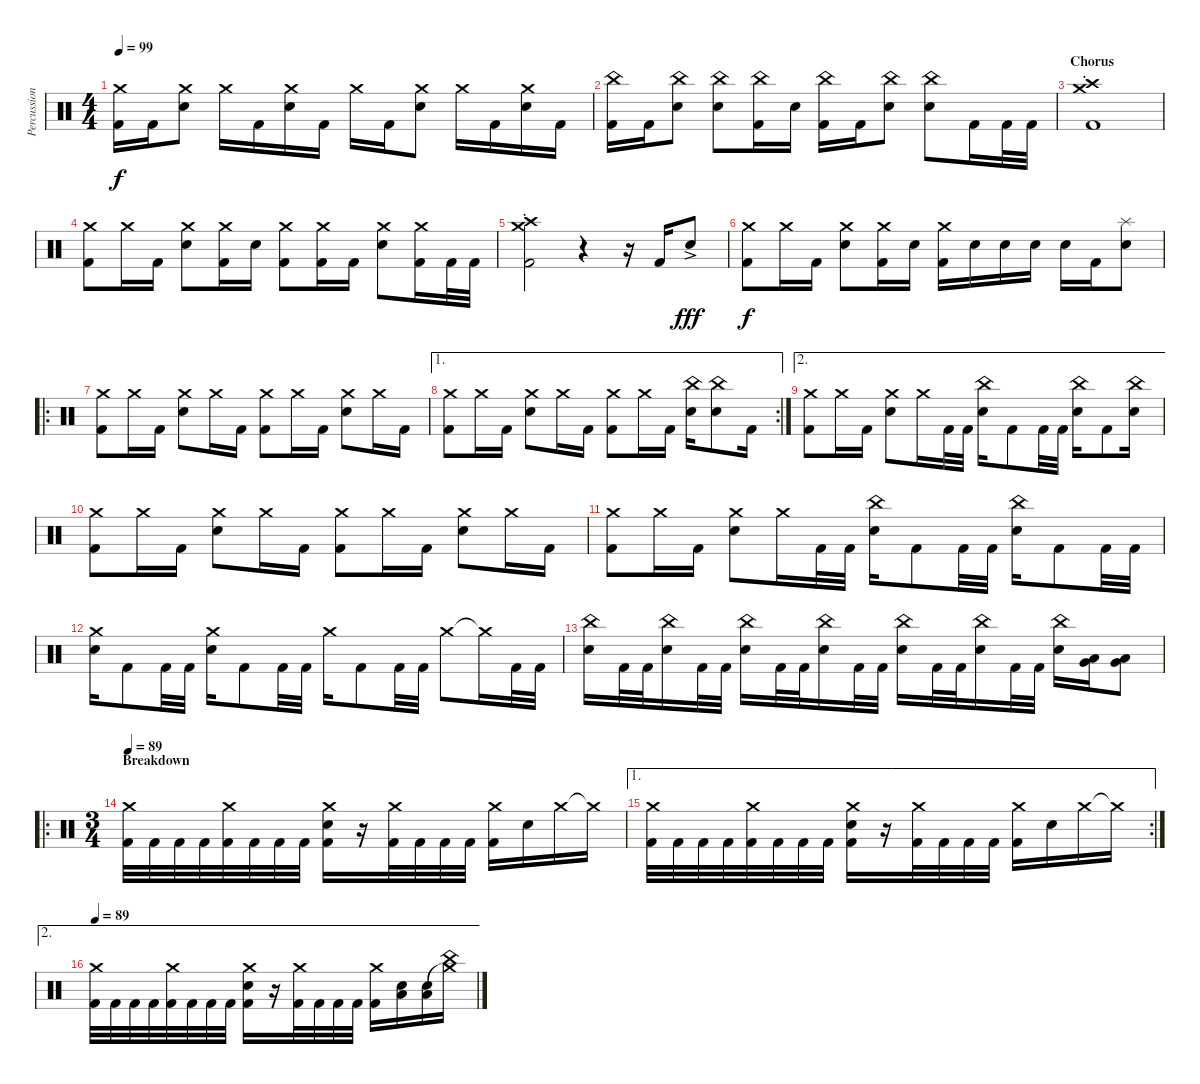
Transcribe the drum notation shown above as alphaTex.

\track ("Percussion" "Percussion") {instrument percussion}
\staff {score}
\articulation defaults
\ts (4 4)
\tempo 99
\clef neutral
\ks c
("Crash medium (hit)" "Kick (hit) 2").16{dy f} "Kick (hit) 2".16 ("Crash medium (hit)" "Electric Snare (hit)").8 "Crash medium (hit)".16 "Kick (hit) 2".16 ("Crash medium (hit)" "Electric Snare (hit)").16 "Kick (hit) 2".16 "Crash medium (hit)".16 "Kick (hit) 2".16 ("Crash medium (hit)" "Electric Snare (hit)").8 "Crash medium (hit)".16 "Kick (hit) 2".16 ("Crash medium (hit)" "Electric Snare (hit)").16 "Kick (hit) 2".16 |
("China (hit)" "Kick (hit) 2").16 "Kick (hit) 2".16 ("China (hit)" "Electric Snare (hit)").8 ("China (hit)" "Electric Snare (hit)").8 ("China (hit)" "Kick (hit) 2").16 "Electric Snare (hit)".16 ("China (hit)" "Kick (hit) 2").16 "Kick (hit) 2".16 ("China (hit)" "Electric Snare (hit)").8 ("China (hit)" "Electric Snare (hit)").8 "Kick (hit) 2".16 "Kick (hit) 2".32 "Kick (hit) 2".32 |
\section ("" "Chorus")
("Crash medium (hit)"{st} "Crash high (hit)" "Kick (hit) 2").1 |
("Crash medium (hit)" "Kick (hit) 2").8 "Crash medium (hit)".16 "Kick (hit) 2".16 ("Crash medium (hit)" "Electric Snare (hit)").8 ("Crash medium (hit)" "Kick (hit) 2").16 "Electric Snare (hit)".16 ("Crash medium (hit)" "Kick (hit) 2").8 ("Crash medium (hit)" "Kick (hit) 2").16 "Kick (hit) 2".16 ("Crash medium (hit)" "Electric Snare (hit)").8 ("Crash medium (hit)" "Kick (hit) 2").16 "Kick (hit) 2".32 "Kick (hit) 2".32 |
("Crash medium (hit)" "Crash high (hit)"{st} "Kick (hit) 2").2 r.4 r.16 "Kick (hit) 2".16 "Electric Snare (hit)"{ac}.8{dy fff} |
("Crash medium (hit)" "Kick (hit) 2").8{dy f} "Crash medium (hit)".16 "Kick (hit) 2".16 ("Crash medium (hit)" "Electric Snare (hit)").8 ("Crash medium (hit)" "Kick (hit) 2").16 "Electric Snare (hit)".16 ("Crash medium (hit)" "Kick (hit) 2").16 "Electric Snare (hit)".16 "Electric Snare (hit)".16 "Electric Snare (hit)".16 "Electric Snare (hit)".16 "Kick (hit) 2".16 ("Splash (hit)" "Electric Snare (hit)").8 |
\ro
("Crash medium (hit)" "Kick (hit) 2").8 "Crash medium (hit)".16 "Kick (hit) 2".16 ("Crash medium (hit)" "Electric Snare (hit)").8 "Crash medium (hit)".16 "Kick (hit) 2".16 ("Crash medium (hit)" "Kick (hit) 2").8 "Crash medium (hit)".16 "Kick (hit) 2".16 ("Crash medium (hit)" "Electric Snare (hit)").8 "Crash medium (hit)".16 "Kick (hit) 2".16 |
\ae 1
\rc 2
("Crash medium (hit)" "Kick (hit) 2").8 "Crash medium (hit)".16 "Kick (hit) 2".16 ("Crash medium (hit)" "Electric Snare (hit)").8 "Crash medium (hit)".16 "Kick (hit) 2".16 ("Crash medium (hit)" "Kick (hit) 2").8 "Crash medium (hit)".16 "Kick (hit) 2".16 ("China (hit)" "Electric Snare (hit)").16 ("China (hit)" "Electric Snare (hit)").8 "Kick (hit) 2".16 |
\ae 2
("Crash medium (hit)" "Kick (hit) 2").8 "Crash medium (hit)".16 "Kick (hit) 2".16 ("Crash medium (hit)" "Electric Snare (hit)").8 "Crash medium (hit)".16 "Kick (hit) 2".32 "Kick (hit) 2".32 ("China (hit)" "Electric Snare (hit)").16 "Kick (hit) 2".8 "Kick (hit) 2".32 "Kick (hit) 2".32 ("China (hit)" "Electric Snare (hit)").16 "Kick (hit) 2".8 ("China (hit)" "Electric Snare (hit)").16 |
("Crash medium (hit)" "Kick (hit) 2").8 "Crash medium (hit)".16 "Kick (hit) 2".16 ("Crash medium (hit)" "Electric Snare (hit)").8 "Crash medium (hit)".16 "Kick (hit) 2".16 ("Crash medium (hit)" "Kick (hit) 2").8 "Crash medium (hit)".16 "Kick (hit) 2".16 ("Crash medium (hit)" "Electric Snare (hit)").8 "Crash medium (hit)".16 "Kick (hit) 2".16 |
("Crash medium (hit)" "Kick (hit) 2").8 "Crash medium (hit)".16 "Kick (hit) 2".16 ("Crash medium (hit)" "Electric Snare (hit)").8 "Crash medium (hit)".16 "Kick (hit) 2".32 "Kick (hit) 2".32 ("China (hit)" "Electric Snare (hit)").16 "Kick (hit) 2".8 "Kick (hit) 2".32 "Kick (hit) 2".32 ("China (hit)" "Electric Snare (hit)").16 "Kick (hit) 2".8 "Kick (hit) 2".32 "Kick (hit) 2".32 |
("Crash medium (hit)" "Electric Snare (hit)").16 "Kick (hit) 2".8 "Kick (hit) 2".32 "Kick (hit) 2".32 ("Crash medium (hit)" "Electric Snare (hit)").16 "Kick (hit) 2".8 "Kick (hit) 2".32 "Kick (hit) 2".32 "Crash medium (hit)".16 "Kick (hit) 2".8 "Kick (hit) 2".32 "Kick (hit) 2".32 "Crash medium (hit)".8 "Crash medium (hit)"{t}.16 "Kick (hit) 2".32 "Kick (hit) 2".32 |
("China (hit)" "Electric Snare (hit)").16 "Kick (hit) 2".32 "Kick (hit) 2".32 ("China (hit)" "Electric Snare (hit)").16 "Kick (hit) 2".32 "Kick (hit) 2".32 ("China (hit)" "Electric Snare (hit)").16 "Kick (hit) 2".32 "Kick (hit) 2".32 ("China (hit)" "Electric Snare (hit)").16 "Kick (hit) 2".32 "Kick (hit) 2".32 ("China (hit)" "Electric Snare (hit)").16 "Kick (hit) 2".32 "Kick (hit) 2".32 ("China (hit)" "Electric Snare (hit)").16 "Kick (hit) 2".32 "Kick (hit) 2".32 ("China (hit)" "Electric Snare (hit)").16 ("Low Tom (hit)" "Very Low Tom (hit)").16 ("Low Tom (hit)" "Very Low Tom (hit)").8 |
\ro
\ts (3 4)
\section ("" "Breakdown")
\tempo 89
("Crash medium (hit)" "Kick (hit) 2").32 "Kick (hit) 2".32 "Kick (hit) 2".32 "Kick (hit) 2".32 ("Crash medium (hit)" "Kick (hit) 2").32 "Kick (hit) 2".32 "Kick (hit) 2".32 "Kick (hit) 2".32 ("Crash medium (hit)" "Electric Snare (hit)" "Kick (hit) 2").16 r.16 ("Crash medium (hit)" "Kick (hit) 2").32 "Kick (hit) 2".32 "Kick (hit) 2".32 "Kick (hit) 2".32 ("Crash medium (hit)" "Kick (hit) 2").16 "Electric Snare (hit)".16 "Crash medium (hit)".16 "Crash medium (hit)"{t}.16 |
\ae 1
\rc 2
("Crash medium (hit)" "Kick (hit) 2").32 "Kick (hit) 2".32 "Kick (hit) 2".32 "Kick (hit) 2".32 ("Crash medium (hit)" "Kick (hit) 2").32 "Kick (hit) 2".32 "Kick (hit) 2".32 "Kick (hit) 2".32 ("Crash medium (hit)" "Electric Snare (hit)" "Kick (hit) 2").16 r.16 ("Crash medium (hit)" "Kick (hit) 2").32 "Kick (hit) 2".32 "Kick (hit) 2".32 "Kick (hit) 2".32 ("Crash medium (hit)" "Kick (hit) 2").16 "Electric Snare (hit)".16 "Crash medium (hit)".16 "Crash medium (hit)"{t}.16 |
\ae 2
\tempo 89
("Crash medium (hit)" "Kick (hit) 2").32 "Kick (hit) 2".32 "Kick (hit) 2".32 "Kick (hit) 2".32 ("Crash medium (hit)" "Kick (hit) 2").32 "Kick (hit) 2".32 "Kick (hit) 2".32 "Kick (hit) 2".32 ("Crash medium (hit)" "Electric Snare (hit)" "Kick (hit) 2").16 r.16 ("Crash medium (hit)" "Kick (hit) 2").32 "Kick (hit) 2".32 "Kick (hit) 2".32 "Kick (hit) 2".32 ("Crash medium (hit)" "Kick (hit) 2").16 ("Low Tom (hit)" "Electric Snare (hit)").16 ("Low Tom (hit)" "Electric Snare (hit)").16 ("Crash medium (hit)"{t} "China (hit)").16
